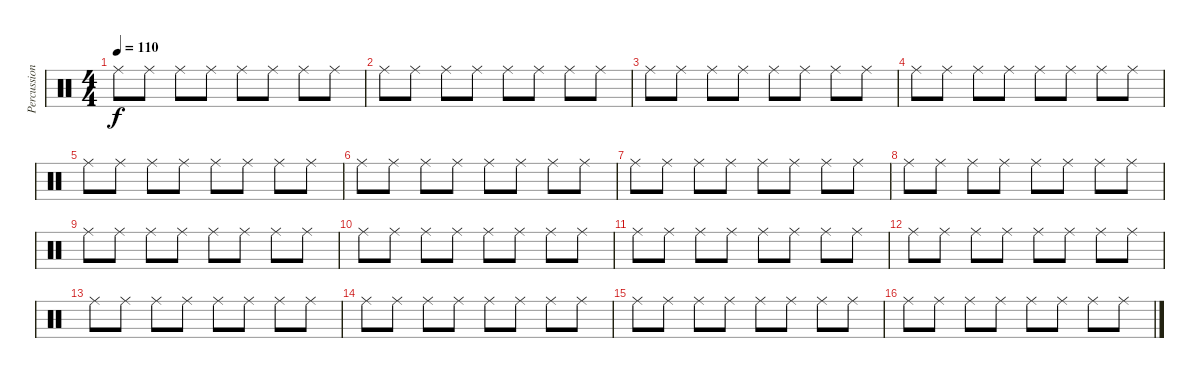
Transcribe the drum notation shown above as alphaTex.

\track ("Percussion 1" "Percussion") {instrument percussion}
\staff {score}
\articulation defaults
\ts (4 4)
\tempo 110
\clef neutral
\ks c "Ride (middle)".8{dy f} "Ride (middle)".8 "Ride (middle)".8 "Ride (middle)".8 "Ride (middle)".8 "Ride (middle)".8 "Ride (middle)".8 "Ride (middle)".8
|
"Ride (middle)".8 "Ride (middle)".8 "Ride (middle)".8 "Ride (middle)".8 "Ride (middle)".8 "Ride (middle)".8 "Ride (middle)".8 "Ride (middle)".8 |
"Ride (middle)".8 "Ride (middle)".8 "Ride (middle)".8 "Ride (middle)".8 "Ride (middle)".8 "Ride (middle)".8 "Ride (middle)".8 "Ride (middle)".8 |
"Ride (middle)".8 "Ride (middle)".8 "Ride (middle)".8 "Ride (middle)".8 "Ride (middle)".8 "Ride (middle)".8 "Ride (middle)".8 "Ride (middle)".8 |
"Ride (middle)".8 "Ride (middle)".8 "Ride (middle)".8 "Ride (middle)".8 "Ride (middle)".8 "Ride (middle)".8 "Ride (middle)".8 "Ride (middle)".8 |
"Ride (middle)".8 "Ride (middle)".8 "Ride (middle)".8 "Ride (middle)".8 "Ride (middle)".8 "Ride (middle)".8 "Ride (middle)".8 "Ride (middle)".8 |
"Ride (middle)".8 "Ride (middle)".8 "Ride (middle)".8 "Ride (middle)".8 "Ride (middle)".8 "Ride (middle)".8 "Ride (middle)".8 "Ride (middle)".8 |
"Ride (middle)".8 "Ride (middle)".8 "Ride (middle)".8 "Ride (middle)".8 "Ride (middle)".8 "Ride (middle)".8 "Ride (middle)".8 "Ride (middle)".8 |
"Ride (middle)".8 "Ride (middle)".8 "Ride (middle)".8 "Ride (middle)".8 "Ride (middle)".8 "Ride (middle)".8 "Ride (middle)".8 "Ride (middle)".8 |
"Ride (middle)".8 "Ride (middle)".8 "Ride (middle)".8 "Ride (middle)".8 "Ride (middle)".8 "Ride (middle)".8 "Ride (middle)".8 "Ride (middle)".8 |
"Ride (middle)".8 "Ride (middle)".8 "Ride (middle)".8 "Ride (middle)".8 "Ride (middle)".8 "Ride (middle)".8 "Ride (middle)".8 "Ride (middle)".8 |
"Ride (middle)".8 "Ride (middle)".8 "Ride (middle)".8 "Ride (middle)".8 "Ride (middle)".8 "Ride (middle)".8 "Ride (middle)".8 "Ride (middle)".8 |
"Ride (middle)".8 "Ride (middle)".8 "Ride (middle)".8 "Ride (middle)".8 "Ride (middle)".8 "Ride (middle)".8 "Ride (middle)".8 "Ride (middle)".8 |
"Ride (middle)".8 "Ride (middle)".8 "Ride (middle)".8 "Ride (middle)".8 "Ride (middle)".8 "Ride (middle)".8 "Ride (middle)".8 "Ride (middle)".8 |
"Ride (middle)".8 "Ride (middle)".8 "Ride (middle)".8 "Ride (middle)".8 "Ride (middle)".8 "Ride (middle)".8 "Ride (middle)".8 "Ride (middle)".8 |
"Ride (middle)".8 "Ride (middle)".8 "Ride (middle)".8 "Ride (middle)".8 "Ride (middle)".8 "Ride (middle)".8 "Ride (middle)".8 "Ride (middle)".8
